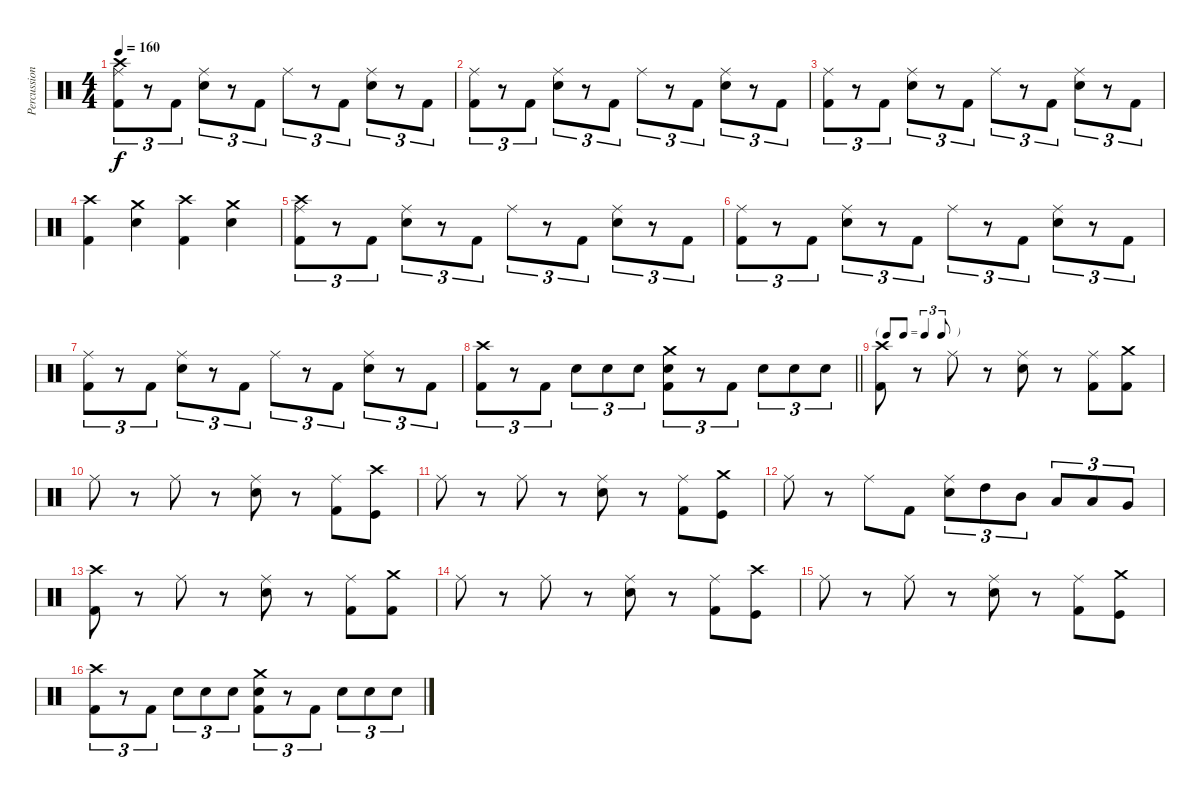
\track ("Percussion" "Percussion") {instrument percussion}
\staff {score}
\articulation defaults
\ts (4 4)
\tempo 160
\clef neutral
\ks c
("Crash high (hit)" "Ride (middle)" "Kick (hit) 2").8{tu (3 2) dy f} r.8{tu (3 2)} "Kick (hit) 2".8{tu (3 2)} ("Ride (middle)" "Electric Snare (hit)").8{tu (3 2)} r.8{tu (3 2)} "Kick (hit) 2".8{tu (3 2)} "Ride (middle)".8{tu (3 2)} r.8{tu (3 2)} "Kick (hit) 2".8{tu (3 2)} ("Ride (middle)" "Electric Snare (hit)").8{tu (3 2)} r.8{tu (3 2)} "Kick (hit) 2".8{tu (3 2)} |
("Ride (middle)" "Kick (hit) 2").8{tu (3 2)} r.8{tu (3 2)} "Kick (hit) 2".8{tu (3 2)} ("Ride (middle)" "Electric Snare (hit)").8{tu (3 2)} r.8{tu (3 2)} "Kick (hit) 2".8{tu (3 2)} "Ride (middle)".8{tu (3 2)} r.8{tu (3 2)} "Kick (hit) 2".8{tu (3 2)} ("Ride (middle)" "Electric Snare (hit)").8{tu (3 2)} r.8{tu (3 2)} "Kick (hit) 2".8{tu (3 2)} |
("Ride (middle)" "Kick (hit) 2").8{tu (3 2)} r.8{tu (3 2)} "Kick (hit) 2".8{tu (3 2)} ("Ride (middle)" "Electric Snare (hit)").8{tu (3 2)} r.8{tu (3 2)} "Kick (hit) 2".8{tu (3 2)} "Ride (middle)".8{tu (3 2)} r.8{tu (3 2)} "Kick (hit) 2".8{tu (3 2)} ("Ride (middle)" "Electric Snare (hit)").8{tu (3 2)} r.8{tu (3 2)} "Kick (hit) 2".8{tu (3 2)} |
("Crash high (hit)" "Kick (hit) 2").4 ("Crash medium (hit)" "Electric Snare (hit)").4 ("Crash high (hit)" "Kick (hit) 2").4 ("Crash medium (hit)" "Electric Snare (hit)").4 |
("Crash high (hit)" "Ride (middle)" "Kick (hit) 2").8{tu (3 2)} r.8{tu (3 2)} "Kick (hit) 2".8{tu (3 2)} ("Ride (middle)" "Electric Snare (hit)").8{tu (3 2)} r.8{tu (3 2)} "Kick (hit) 2".8{tu (3 2)} "Ride (middle)".8{tu (3 2)} r.8{tu (3 2)} "Kick (hit) 2".8{tu (3 2)} ("Ride (middle)" "Electric Snare (hit)").8{tu (3 2)} r.8{tu (3 2)} "Kick (hit) 2".8{tu (3 2)} |
("Ride (middle)" "Kick (hit) 2").8{tu (3 2)} r.8{tu (3 2)} "Kick (hit) 2".8{tu (3 2)} ("Ride (middle)" "Electric Snare (hit)").8{tu (3 2)} r.8{tu (3 2)} "Kick (hit) 2".8{tu (3 2)} "Ride (middle)".8{tu (3 2)} r.8{tu (3 2)} "Kick (hit) 2".8{tu (3 2)} ("Ride (middle)" "Electric Snare (hit)").8{tu (3 2)} r.8{tu (3 2)} "Kick (hit) 2".8{tu (3 2)} |
("Ride (middle)" "Kick (hit) 2").8{tu (3 2)} r.8{tu (3 2)} "Kick (hit) 2".8{tu (3 2)} ("Ride (middle)" "Electric Snare (hit)").8{tu (3 2)} r.8{tu (3 2)} "Kick (hit) 2".8{tu (3 2)} "Ride (middle)".8{tu (3 2)} r.8{tu (3 2)} "Kick (hit) 2".8{tu (3 2)} ("Ride (middle)" "Electric Snare (hit)").8{tu (3 2)} r.8{tu (3 2)} "Kick (hit) 2".8{tu (3 2)} |
\barLineRight lightlight
("Crash high (hit)" "Kick (hit) 2").8{tu (3 2)} r.8{tu (3 2)} "Kick (hit) 2".8{tu (3 2)} "Electric Snare (hit)".8{tu (3 2)} "Electric Snare (hit)".8{tu (3 2)} "Electric Snare (hit)".8{tu (3 2)} ("Crash medium (hit)" "Electric Snare (hit)" "Kick (hit) 2").8{tu (3 2)} r.8{tu (3 2)} "Kick (hit) 2".8{tu (3 2)} "Electric Snare (hit)".8{tu (3 2)} "Electric Snare (hit)".8{tu (3 2)} "Electric Snare (hit)".8{tu (3 2)} |
\tf triplet8th
("Crash high (hit)" "Kick (hit) 2").8 r.8 "Ride (middle)".8 r.8 ("Ride (middle)" "Electric Snare (hit)").8 r.8 ("Ride (middle)" "Kick (hit) 2").8 ("Crash medium (hit)" "Kick (hit) 2").8 |
"Ride (middle)".8 r.8 "Ride (middle)".8 r.8 ("Ride (middle)" "Electric Snare (hit)").8 r.8 ("Ride (middle)" "Kick (hit) 2").8 ("Crash high (hit)" "Kick (hit)").8 |
"Ride (middle)".8 r.8 "Ride (middle)".8 r.8 ("Ride (middle)" "Electric Snare (hit)").8 r.8 ("Ride (middle)" "Kick (hit) 2").8 ("Crash medium (hit)" "Kick (hit)").8 |
"Ride (middle)".8 r.8 "Ride (middle)".8 "Kick (hit) 2".8 ("Ride (middle)" "Electric Snare (hit)").8{tu (3 2)} "High Tom (hit)".8{tu (3 2)} "Mid Tom (hit)".8{tu (3 2)} "Low Tom (hit)".8{tu (3 2)} "Low Tom (hit)".8{tu (3 2)} "Very Low Tom (hit)".8{tu (3 2)} |
("Crash high (hit)" "Kick (hit) 2").8 r.8 "Ride (middle)".8 r.8 ("Ride (middle)" "Electric Snare (hit)").8 r.8 ("Ride (middle)" "Kick (hit) 2").8 ("Crash medium (hit)" "Kick (hit) 2").8 |
"Ride (middle)".8 r.8 "Ride (middle)".8 r.8 ("Ride (middle)" "Electric Snare (hit)").8 r.8 ("Ride (middle)" "Kick (hit) 2").8 ("Crash high (hit)" "Kick (hit)").8 |
"Ride (middle)".8 r.8 "Ride (middle)".8 r.8 ("Ride (middle)" "Electric Snare (hit)").8 r.8 ("Ride (middle)" "Kick (hit) 2").8 ("Crash medium (hit)" "Kick (hit)").8 |
("Crash high (hit)" "Kick (hit) 2").8{tu (3 2)} r.8{tu (3 2)} "Kick (hit) 2".8{tu (3 2)} "Electric Snare (hit)".8{tu (3 2)} "Electric Snare (hit)".8{tu (3 2)} "Electric Snare (hit)".8{tu (3 2)} ("Crash medium (hit)" "Electric Snare (hit)" "Kick (hit) 2").8{tu (3 2)} r.8{tu (3 2)} "Kick (hit) 2".8{tu (3 2)} "Electric Snare (hit)".8{tu (3 2)} "Electric Snare (hit)".8{tu (3 2)} "Electric Snare (hit)".8{tu (3 2)}
